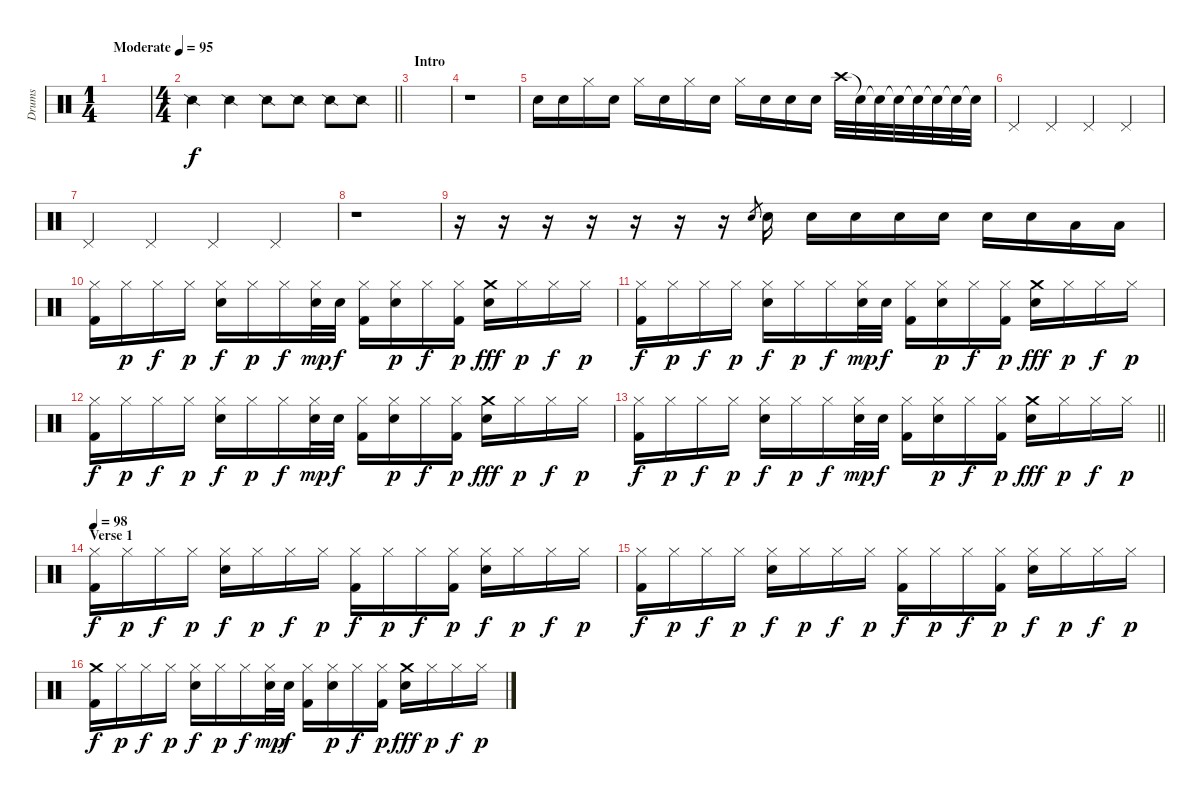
\track ("Drums" "Drums") {instrument percussion}
\staff {score}
\articulation defaults
\ts (1 4)
\tempo (95 "Moderate")
\clef neutral
\ks c
|
\ts (4 4)
\barLineRight lightlight "Snare (side stick) 2".4 "Snare (side stick) 2".4 "Snare (side stick) 2".8 "Snare (side stick) 2".8 "Snare (side stick) 2".8 "Snare (side stick) 2".8
|
\section ("" "Intro")
|
r.1 |
"Electric Snare (hit)".16 "Electric Snare (hit)".16 "Hi-Hat (closed)".16 "Electric Snare (hit)".16 "Hi-Hat (closed)".16 "Electric Snare (hit)".16 "Hi-Hat (closed)".16 "Electric Snare (hit)".16 "Hi-Hat (closed)".16 "Electric Snare (hit)".16 "Electric Snare (hit)".16 "Electric Snare (hit)".16 "Crash high (hit)".32 "Snare (hit)"{t}.32 "Snare (hit)"{t}.32 "Snare (hit)"{t}.32 "Snare (hit)"{t}.32 "Snare (hit)"{t}.32 "Snare (hit)"{t}.32 "Snare (hit)"{t}.32 |
"Pedal Hi-Hat (hit)".4 "Pedal Hi-Hat (hit)".4 "Pedal Hi-Hat (hit)".4 "Pedal Hi-Hat (hit)".4 |
"Pedal Hi-Hat (hit)".4 "Pedal Hi-Hat (hit)".4 "Pedal Hi-Hat (hit)".4 "Pedal Hi-Hat (hit)".4 |
r.1 |
r.16 r.16 r.16 r.16 r.16 r.16 r.16 "Snare (hit) 2".8{gr} "Snare (hit) 2".16 "Snare (hit) 2".16 "Snare (hit) 2".16 "Snare (hit) 2".16 "Snare (hit) 2".16 "Snare (hit) 2".16 "Snare (hit) 2".16 "Low Tom (hit)".16 "Low Tom (hit)".16 |
("Hi-Hat (closed)" "Kick (hit) 2").16 "Hi-Hat (closed)".16{dy p} "Hi-Hat (closed)".16{dy f} "Hi-Hat (closed)".16{dy p} ("Hi-Hat (closed)" "Electric Snare (hit)").16{dy f} "Hi-Hat (closed)".16{dy p} "Hi-Hat (closed)".16{dy f} ("Hi-Hat (closed)" "Electric Snare (hit)").32{dy mp} "Electric Snare (hit)".32{dy f} ("Hi-Hat (closed)" "Kick (hit) 2").16 ("Hi-Hat (closed)" "Electric Snare (hit)").16{dy p} "Hi-Hat (closed)".16{dy f} ("Hi-Hat (closed)" "Kick (hit) 2").16{dy p} ("Crash medium (hit)" "Electric Snare (hit)").16{dy fff} "Hi-Hat (closed)".16{dy p} "Hi-Hat (closed)".16{dy f} "Hi-Hat (closed)".16{dy p} |
("Hi-Hat (closed)" "Kick (hit) 2").16{dy f} "Hi-Hat (closed)".16{dy p} "Hi-Hat (closed)".16{dy f} "Hi-Hat (closed)".16{dy p} ("Hi-Hat (closed)" "Electric Snare (hit)").16{dy f} "Hi-Hat (closed)".16{dy p} "Hi-Hat (closed)".16{dy f} ("Hi-Hat (closed)" "Electric Snare (hit)").32{dy mp} "Electric Snare (hit)".32{dy f} ("Hi-Hat (closed)" "Kick (hit) 2").16 ("Hi-Hat (closed)" "Electric Snare (hit)").16{dy p} "Hi-Hat (closed)".16{dy f} ("Hi-Hat (closed)" "Kick (hit) 2").16{dy p} ("Crash medium (hit)" "Electric Snare (hit)").16{dy fff} "Hi-Hat (closed)".16{dy p} "Hi-Hat (closed)".16{dy f} "Hi-Hat (closed)".16{dy p} |
("Hi-Hat (closed)" "Kick (hit) 2").16{dy f} "Hi-Hat (closed)".16{dy p} "Hi-Hat (closed)".16{dy f} "Hi-Hat (closed)".16{dy p} ("Hi-Hat (closed)" "Electric Snare (hit)").16{dy f} "Hi-Hat (closed)".16{dy p} "Hi-Hat (closed)".16{dy f} ("Hi-Hat (closed)" "Electric Snare (hit)").32{dy mp} "Electric Snare (hit)".32{dy f} ("Hi-Hat (closed)" "Kick (hit) 2").16 ("Hi-Hat (closed)" "Electric Snare (hit)").16{dy p} "Hi-Hat (closed)".16{dy f} ("Hi-Hat (closed)" "Kick (hit) 2").16{dy p} ("Crash medium (hit)" "Electric Snare (hit)").16{dy fff} "Hi-Hat (closed)".16{dy p} "Hi-Hat (closed)".16{dy f} "Hi-Hat (closed)".16{dy p} |
\barLineRight lightlight
("Hi-Hat (closed)" "Kick (hit) 2").16{dy f} "Hi-Hat (closed)".16{dy p} "Hi-Hat (closed)".16{dy f} "Hi-Hat (closed)".16{dy p} ("Hi-Hat (closed)" "Electric Snare (hit)").16{dy f} "Hi-Hat (closed)".16{dy p} "Hi-Hat (closed)".16{dy f} ("Hi-Hat (closed)" "Electric Snare (hit)").32{dy mp} "Electric Snare (hit)".32{dy f} ("Hi-Hat (closed)" "Kick (hit) 2").16 ("Hi-Hat (closed)" "Electric Snare (hit)").16{dy p} "Hi-Hat (closed)".16{dy f} ("Hi-Hat (closed)" "Kick (hit) 2").16{dy p} ("Crash medium (hit)" "Electric Snare (hit)").16{dy fff} "Hi-Hat (closed)".16{dy p} "Hi-Hat (closed)".16{dy f} "Hi-Hat (closed)".16{dy p} |
\section ("" "Verse 1")
\tempo 98
("Hi-Hat (closed)" "Kick (hit) 2").16{dy f} "Hi-Hat (closed)".16{dy p} "Hi-Hat (closed)".16{dy f} "Hi-Hat (closed)".16{dy p} ("Hi-Hat (closed)" "Electric Snare (hit)").16{dy f} "Hi-Hat (closed)".16{dy p} "Hi-Hat (closed)".16{dy f} "Hi-Hat (closed)".16{dy p} ("Hi-Hat (closed)" "Kick (hit) 2").16{dy f} "Hi-Hat (closed)".16{dy p} "Hi-Hat (closed)".16{dy f} ("Hi-Hat (closed)" "Kick (hit) 2").16{dy p} ("Hi-Hat (closed)" "Electric Snare (hit)").16{dy f} "Hi-Hat (closed)".16{dy p} "Hi-Hat (closed)".16{dy f} "Hi-Hat (closed)".16{dy p} |
("Hi-Hat (closed)" "Kick (hit) 2").16{dy f} "Hi-Hat (closed)".16{dy p} "Hi-Hat (closed)".16{dy f} "Hi-Hat (closed)".16{dy p} ("Hi-Hat (closed)" "Electric Snare (hit)").16{dy f} "Hi-Hat (closed)".16{dy p} "Hi-Hat (closed)".16{dy f} "Hi-Hat (closed)".16{dy p} ("Hi-Hat (closed)" "Kick (hit) 2").16{dy f} "Hi-Hat (closed)".16{dy p} "Hi-Hat (closed)".16{dy f} ("Hi-Hat (closed)" "Kick (hit) 2").16{dy p} ("Hi-Hat (closed)" "Electric Snare (hit)").16{dy f} "Hi-Hat (closed)".16{dy p} "Hi-Hat (closed)".16{dy f} "Hi-Hat (closed)".16{dy p} |
("Crash medium (hit)" "Kick (hit) 2").16{dy f} "Hi-Hat (closed)".16{dy p} "Hi-Hat (closed)".16{dy f} "Hi-Hat (closed)".16{dy p} ("Hi-Hat (closed)" "Electric Snare (hit)").16{dy f} "Hi-Hat (closed)".16{dy p} "Hi-Hat (closed)".16{dy f} ("Hi-Hat (closed)" "Electric Snare (hit)").32{dy mp} "Electric Snare (hit)".32{dy f} ("Hi-Hat (closed)" "Kick (hit) 2").16 ("Hi-Hat (closed)" "Electric Snare (hit)").16{dy p} "Hi-Hat (closed)".16{dy f} ("Hi-Hat (closed)" "Kick (hit) 2").16{dy p} ("Crash medium (hit)" "Electric Snare (hit)").16{dy fff} "Hi-Hat (closed)".16{dy p} "Hi-Hat (closed)".16{dy f} "Hi-Hat (closed)".16{dy p}
